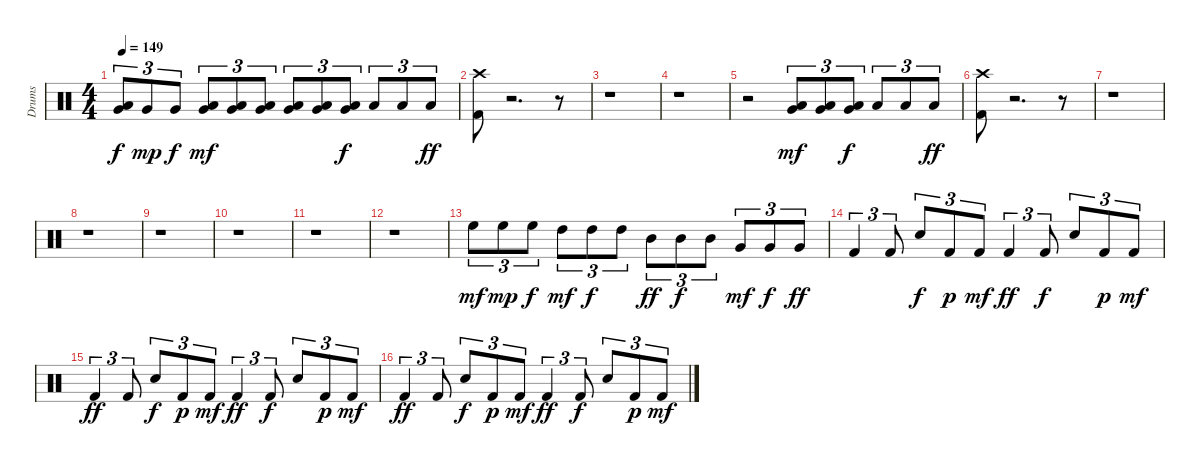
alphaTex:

\track ("Drums" "Drums") {instrument percussion}
\staff {score}
\articulation defaults
\ts (4 4)
\tempo 149
\clef neutral
\ks c
("Very Low Tom (hit)" "Low Tom (hit)").8{tu (3 2) dy f} "Very Low Tom (hit)".8{tu (3 2) dy mp} "Very Low Tom (hit)".8{tu (3 2) dy f} ("Very Low Tom (hit)" "Low Tom (hit)").8{tu (3 2) dy mf} ("Very Low Tom (hit)" "Low Tom (hit)").8{tu (3 2)} ("Very Low Tom (hit)" "Low Tom (hit)").8{tu (3 2)} ("Low Floor Tom (hit)" "Very Low Tom (hit)").8{tu (3 2)} ("Low Floor Tom (hit)" "Very Low Tom (hit)").8{tu (3 2)} ("Low Floor Tom (hit)" "Very Low Tom (hit)").8{tu (3 2) dy f} "Low Floor Tom (hit)".8{tu (3 2)} "Low Floor Tom (hit)".8{tu (3 2)} "Low Floor Tom (hit)".8{tu (3 2) dy ff} |
("Kick (hit) 2" "Crash high (hit)").8 r.2{d} r.8 |
r.1 |
r.1 |
r.2 ("Low Floor Tom (hit)" "Very Low Tom (hit)").8{tu (3 2) dy mf} ("Low Floor Tom (hit)" "Very Low Tom (hit)").8{tu (3 2)} ("Low Floor Tom (hit)" "Very Low Tom (hit)").8{tu (3 2) dy f} "Low Floor Tom (hit)".8{tu (3 2)} "Low Floor Tom (hit)".8{tu (3 2)} "Low Floor Tom (hit)".8{tu (3 2) dy ff} |
("Kick (hit) 2" "Crash high (hit)").8 r.2{d} r.8 |
r.1 |
r.1 |
r.1 |
r.1 |
r.1 |
r.1 |
"High Floor Tom (hit)".8{tu (3 2) dy mf} "High Floor Tom (hit)".8{tu (3 2) dy mp} "High Floor Tom (hit)".8{tu (3 2) dy f} "High Tom (hit)".8{tu (3 2) dy mf} "High Tom (hit)".8{tu (3 2) dy f} "High Tom (hit)".8{tu (3 2)} "Mid Tom (hit)".8{tu (3 2) dy ff} "Mid Tom (hit)".8{tu (3 2) dy f} "Mid Tom (hit)".8{tu (3 2)} "Very Low Tom (hit)".8{tu (3 2) dy mf} "Very Low Tom (hit)".8{tu (3 2) dy f} "Very Low Tom (hit)".8{tu (3 2) dy ff} |
"Kick (hit) 2".4{tu (3 2)} "Kick (hit) 2".8{tu (3 2)} "Snare (hit) 2".8{tu (3 2) dy f} "Kick (hit) 2".8{tu (3 2) dy p} "Kick (hit) 2".8{tu (3 2) dy mf} "Kick (hit) 2".4{tu (3 2) dy ff} "Kick (hit) 2".8{tu (3 2) dy f} "Snare (hit) 2".8{tu (3 2)} "Kick (hit) 2".8{tu (3 2) dy p} "Kick (hit) 2".8{tu (3 2) dy mf} |
"Kick (hit) 2".4{tu (3 2) dy ff} "Kick (hit) 2".8{tu (3 2)} "Snare (hit) 2".8{tu (3 2) dy f} "Kick (hit) 2".8{tu (3 2) dy p} "Kick (hit) 2".8{tu (3 2) dy mf} "Kick (hit) 2".4{tu (3 2) dy ff} "Kick (hit) 2".8{tu (3 2) dy f} "Snare (hit) 2".8{tu (3 2)} "Kick (hit) 2".8{tu (3 2) dy p} "Kick (hit) 2".8{tu (3 2) dy mf} |
"Kick (hit) 2".4{tu (3 2) dy ff} "Kick (hit) 2".8{tu (3 2)} "Snare (hit) 2".8{tu (3 2) dy f} "Kick (hit) 2".8{tu (3 2) dy p} "Kick (hit) 2".8{tu (3 2) dy mf} "Kick (hit) 2".4{tu (3 2) dy ff} "Kick (hit) 2".8{tu (3 2) dy f} "Snare (hit) 2".8{tu (3 2)} "Kick (hit) 2".8{tu (3 2) dy p} "Kick (hit) 2".8{tu (3 2) dy mf}
